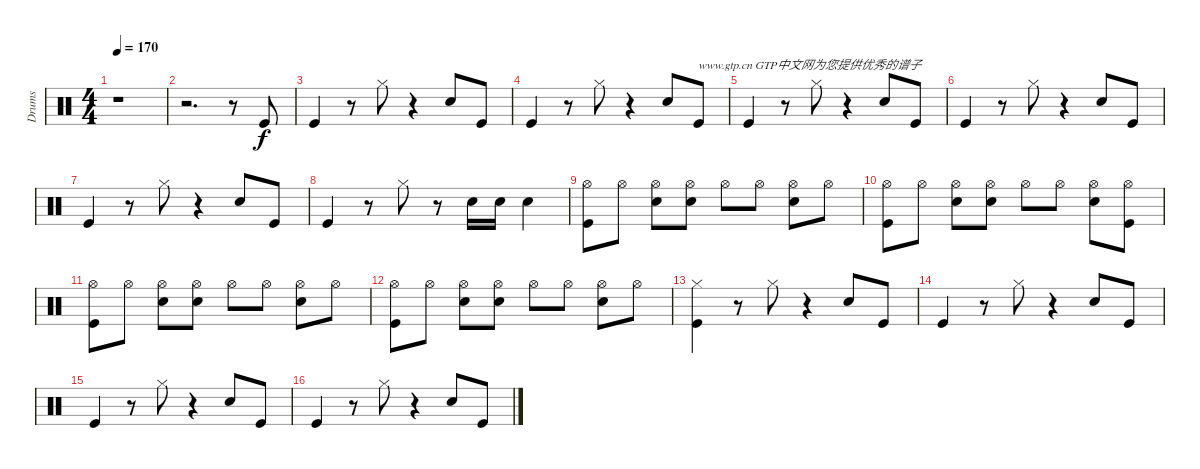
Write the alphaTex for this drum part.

\track ("Drums" "Drums") {instrument percussion}
\staff {score}
\articulation defaults
\ts (4 4)
\tempo 170
\tempo 135
\tempo 170
\clef neutral
\ks c
r.1{dy f} |
r.2{d} r.8 "Kick (hit)".8 |
"Kick (hit)".4 r.8 "Hi-Hat (closed)".8 r.4 "Snare (hit) 2".8 "Kick (hit)".8 |
"Kick (hit)".4 r.8 "Hi-Hat (closed)".8 r.4 "Snare (hit) 2".8 "Kick (hit)".8{txt "www.gtp.cn GTP中文网为您提供优秀的谱子"} |
"Kick (hit)".4 r.8 "Hi-Hat (closed)".8 r.4 "Snare (hit) 2".8 "Kick (hit)".8 |
"Kick (hit)".4 r.8 "Hi-Hat (closed)".8 r.4 "Snare (hit) 2".8 "Kick (hit)".8 |
"Kick (hit)".4 r.8 "Hi-Hat (closed)".8 r.4 "Snare (hit) 2".8 "Kick (hit)".8 |
"Kick (hit)".4 r.8 "Hi-Hat (closed)".8 r.8 "Snare (hit) 2".16 "Snare (hit) 2".16 "Snare (hit) 2".4 |
("Hi-Hat (open)" "Kick (hit)").8 "Hi-Hat (open)".8 ("Hi-Hat (open)" "Snare (hit) 2").8 ("Hi-Hat (open)" "Snare (hit) 2").8 "Hi-Hat (open)".8 "Hi-Hat (open)".8 ("Hi-Hat (open)" "Snare (hit) 2").8 "Hi-Hat (open)".8 |
("Kick (hit)" "Hi-Hat (open)").8 "Hi-Hat (open)".8 ("Hi-Hat (open)" "Snare (hit) 2").8 ("Hi-Hat (open)" "Snare (hit) 2").8 "Hi-Hat (open)".8 "Hi-Hat (open)".8 ("Hi-Hat (open)" "Snare (hit) 2").8 ("Hi-Hat (open)" "Kick (hit)").8 |
("Kick (hit)" "Hi-Hat (open)").8 "Hi-Hat (open)".8 ("Hi-Hat (open)" "Snare (hit) 2").8 ("Hi-Hat (open)" "Snare (hit) 2").8 "Hi-Hat (open)".8 "Hi-Hat (open)".8 ("Hi-Hat (open)" "Snare (hit) 2").8 "Hi-Hat (open)".8 |
("Kick (hit)" "Hi-Hat (open)").8 "Hi-Hat (open)".8 ("Hi-Hat (open)" "Snare (hit) 2").8 ("Hi-Hat (open)" "Snare (hit) 2").8 "Hi-Hat (open)".8 "Hi-Hat (open)".8 ("Hi-Hat (open)" "Snare (hit) 2").8 "Hi-Hat (open)".8 |
("Hi-Hat (closed)" "Kick (hit)").4 r.8 "Hi-Hat (closed)".8 r.4 "Snare (hit) 2".8 "Kick (hit)".8 |
"Kick (hit)".4 r.8 "Hi-Hat (closed)".8 r.4 "Snare (hit) 2".8 "Kick (hit)".8 |
"Kick (hit)".4 r.8 "Hi-Hat (closed)".8 r.4 "Snare (hit) 2".8 "Kick (hit)".8 |
"Kick (hit)".4 r.8 "Hi-Hat (closed)".8 r.4 "Snare (hit) 2".8 "Kick (hit)".8
